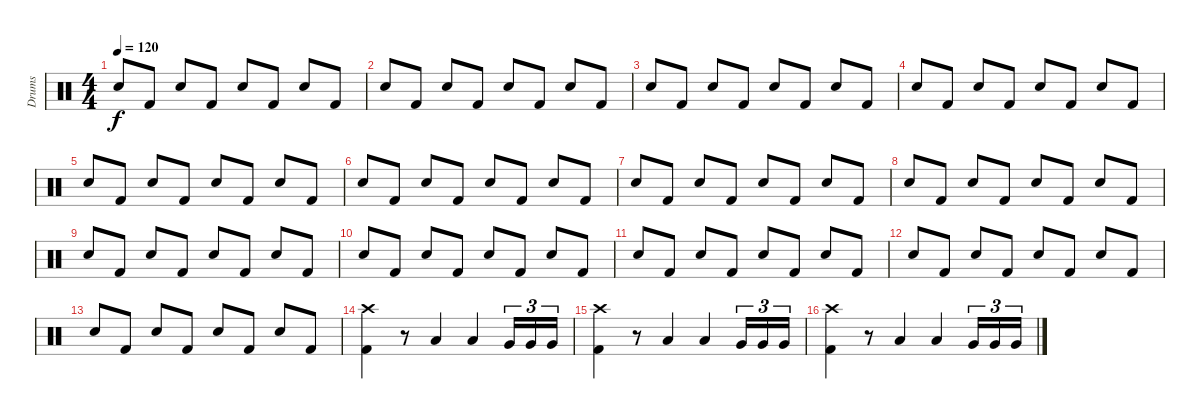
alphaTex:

\track ("Drums" "Drums") {instrument percussion}
\staff {score}
\articulation defaults
\ts (4 4)
\tempo 120
\clef neutral
\ks c "Snare (hit) 2".8{dy f} "Kick (hit) 2".8 "Snare (hit) 2".8 "Kick (hit) 2".8 "Snare (hit) 2".8 "Kick (hit) 2".8 "Snare (hit) 2".8 "Kick (hit) 2".8
|
"Snare (hit) 2".8 "Kick (hit) 2".8 "Snare (hit) 2".8 "Kick (hit) 2".8 "Snare (hit) 2".8 "Kick (hit) 2".8 "Snare (hit) 2".8 "Kick (hit) 2".8 |
"Snare (hit) 2".8 "Kick (hit) 2".8 "Snare (hit) 2".8 "Kick (hit) 2".8 "Snare (hit) 2".8 "Kick (hit) 2".8 "Snare (hit) 2".8 "Kick (hit) 2".8 |
"Snare (hit) 2".8 "Kick (hit) 2".8 "Snare (hit) 2".8 "Kick (hit) 2".8 "Snare (hit) 2".8 "Kick (hit) 2".8 "Snare (hit) 2".8 "Kick (hit) 2".8 |
"Snare (hit) 2".8 "Kick (hit) 2".8 "Snare (hit) 2".8 "Kick (hit) 2".8 "Snare (hit) 2".8 "Kick (hit) 2".8 "Snare (hit) 2".8 "Kick (hit) 2".8 |
"Snare (hit) 2".8 "Kick (hit) 2".8 "Snare (hit) 2".8 "Kick (hit) 2".8 "Snare (hit) 2".8 "Kick (hit) 2".8 "Snare (hit) 2".8 "Kick (hit) 2".8 |
"Snare (hit) 2".8 "Kick (hit) 2".8 "Snare (hit) 2".8 "Kick (hit) 2".8 "Snare (hit) 2".8 "Kick (hit) 2".8 "Snare (hit) 2".8 "Kick (hit) 2".8 |
"Snare (hit) 2".8 "Kick (hit) 2".8 "Snare (hit) 2".8 "Kick (hit) 2".8 "Snare (hit) 2".8 "Kick (hit) 2".8 "Snare (hit) 2".8 "Kick (hit) 2".8 |
"Snare (hit) 2".8 "Kick (hit) 2".8 "Snare (hit) 2".8 "Kick (hit) 2".8 "Snare (hit) 2".8 "Kick (hit) 2".8 "Snare (hit) 2".8 "Kick (hit) 2".8 |
"Snare (hit) 2".8 "Kick (hit) 2".8 "Snare (hit) 2".8 "Kick (hit) 2".8 "Snare (hit) 2".8 "Kick (hit) 2".8 "Snare (hit) 2".8 "Kick (hit) 2".8 |
"Snare (hit) 2".8 "Kick (hit) 2".8 "Snare (hit) 2".8 "Kick (hit) 2".8 "Snare (hit) 2".8 "Kick (hit) 2".8 "Snare (hit) 2".8 "Kick (hit) 2".8 |
"Snare (hit) 2".8 "Kick (hit) 2".8 "Snare (hit) 2".8 "Kick (hit) 2".8 "Snare (hit) 2".8 "Kick (hit) 2".8 "Snare (hit) 2".8 "Kick (hit) 2".8 |
"Snare (hit) 2".8 "Kick (hit) 2".8 "Snare (hit) 2".8 "Kick (hit) 2".8 "Snare (hit) 2".8 "Kick (hit) 2".8 "Snare (hit) 2".8 "Kick (hit) 2".8 |
("Crash high (hit)" "Kick (hit) 2").4 r.8 "Low Floor Tom (hit)".4 "Low Tom (hit)".4 "Very Low Tom (hit)".16{tu (3 2)} "Very Low Tom (hit)".16{tu (3 2)} "Very Low Tom (hit)".16{tu (3 2)} |
("Crash high (hit)" "Kick (hit) 2").4 r.8 "Low Floor Tom (hit)".4 "Low Tom (hit)".4 "Very Low Tom (hit)".16{tu (3 2)} "Very Low Tom (hit)".16{tu (3 2)} "Very Low Tom (hit)".16{tu (3 2)} |
("Crash high (hit)" "Kick (hit) 2").4 r.8 "Low Floor Tom (hit)".4 "Low Tom (hit)".4 "Very Low Tom (hit)".16{tu (3 2)} "Very Low Tom (hit)".16{tu (3 2)} "Very Low Tom (hit)".16{tu (3 2)}
